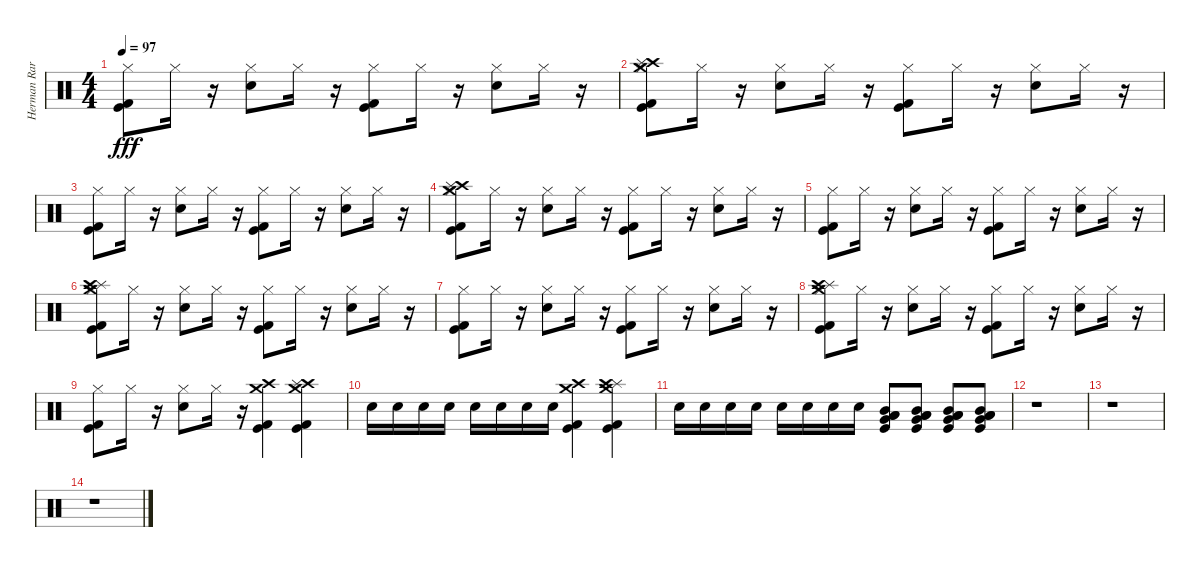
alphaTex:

\track ("Herman Rarebel" "Herman Rar") {instrument percussion}
\staff {score}
\articulation defaults
\ts (4 4)
\tempo 97
\clef neutral
\ks c
("Hi-Hat (closed)" "Kick (hit)" "Kick (hit) 2").8{dy fff} "Hi-Hat (closed)".16 r.16 ("Snare (hit) 2" "Hi-Hat (closed)").8 "Hi-Hat (closed)".16 r.16 ("Kick (hit) 2" "Kick (hit)" "Hi-Hat (closed)").8 "Hi-Hat (closed)".16 r.16 ("Snare (hit) 2" "Hi-Hat (closed)").8 "Hi-Hat (closed)".16 r.16 |
("Hi-Hat (closed)" "Crash high (hit)" "Splash (hit)" "Crash medium (hit)" "Kick (hit)" "Kick (hit) 2").8 "Hi-Hat (closed)".16 r.16 ("Snare (hit) 2" "Hi-Hat (closed)").8 "Hi-Hat (closed)".16 r.16 ("Kick (hit) 2" "Kick (hit)" "Hi-Hat (closed)").8 "Hi-Hat (closed)".16 r.16 ("Snare (hit) 2" "Hi-Hat (closed)").8 "Hi-Hat (closed)".16 r.16 |
("Hi-Hat (closed)" "Kick (hit)" "Kick (hit) 2").8 "Hi-Hat (closed)".16 r.16 ("Snare (hit) 2" "Hi-Hat (closed)").8 "Hi-Hat (closed)".16 r.16 ("Kick (hit) 2" "Kick (hit)" "Hi-Hat (closed)").8 "Hi-Hat (closed)".16 r.16 ("Snare (hit) 2" "Hi-Hat (closed)").8 "Hi-Hat (closed)".16 r.16 |
("Hi-Hat (closed)" "Crash high (hit)" "Splash (hit)" "Crash medium (hit)" "Kick (hit)" "Kick (hit) 2").8 "Hi-Hat (closed)".16 r.16 ("Snare (hit) 2" "Hi-Hat (closed)").8 "Hi-Hat (closed)".16 r.16 ("Kick (hit) 2" "Kick (hit)" "Hi-Hat (closed)").8 "Hi-Hat (closed)".16 r.16 ("Snare (hit) 2" "Hi-Hat (closed)").8 "Hi-Hat (closed)".16 r.16 |
("Hi-Hat (closed)" "Kick (hit)" "Kick (hit) 2").8 "Hi-Hat (closed)".16 r.16 ("Snare (hit) 2" "Hi-Hat (closed)").8 "Hi-Hat (closed)".16 r.16 ("Kick (hit) 2" "Kick (hit)" "Hi-Hat (closed)").8 "Hi-Hat (closed)".16 r.16 ("Snare (hit) 2" "Hi-Hat (closed)").8 "Hi-Hat (closed)".16 r.16 |
("Kick (hit) 2" "Kick (hit)" "Crash medium (hit)" "Splash (hit)" "Crash high (hit)" "Hi-Hat (closed)").8 "Hi-Hat (closed)".16 r.16 ("Snare (hit) 2" "Hi-Hat (closed)").8 "Hi-Hat (closed)".16 r.16 ("Kick (hit) 2" "Kick (hit)" "Hi-Hat (closed)").8 "Hi-Hat (closed)".16 r.16 ("Snare (hit) 2" "Hi-Hat (closed)").8 "Hi-Hat (closed)".16 r.16 |
("Hi-Hat (closed)" "Kick (hit)" "Kick (hit) 2").8 "Hi-Hat (closed)".16 r.16 ("Snare (hit) 2" "Hi-Hat (closed)").8 "Hi-Hat (closed)".16 r.16 ("Kick (hit) 2" "Kick (hit)" "Hi-Hat (closed)").8 "Hi-Hat (closed)".16 r.16 ("Snare (hit) 2" "Hi-Hat (closed)").8 "Hi-Hat (closed)".16 r.16 |
("Hi-Hat (closed)" "Kick (hit)" "Kick (hit) 2" "Crash medium (hit)" "Splash (hit)" "Crash high (hit)").8 "Hi-Hat (closed)".16 r.16 ("Snare (hit) 2" "Hi-Hat (closed)").8 "Hi-Hat (closed)".16 r.16 ("Kick (hit) 2" "Kick (hit)" "Hi-Hat (closed)").8 "Hi-Hat (closed)".16 r.16 ("Snare (hit) 2" "Hi-Hat (closed)").8 "Hi-Hat (closed)".16 r.16 |
("Hi-Hat (closed)" "Kick (hit)" "Kick (hit) 2").8 "Hi-Hat (closed)".16 r.16 ("Hi-Hat (closed)" "Snare (hit) 2").8 "Hi-Hat (closed)".16 r.16 ("Kick (hit) 2" "Kick (hit)" "Crash high (hit)" "Crash medium (hit)").4 ("Kick (hit) 2" "Kick (hit)" "Crash high (hit)" "Crash medium (hit)" "Splash (hit)").4 |
"Snare (hit) 2".16 "Snare (hit) 2".16 "Snare (hit) 2".16 "Snare (hit) 2".16 "Snare (hit) 2".16 "Snare (hit) 2".16 "Snare (hit) 2".16 "Snare (hit) 2".16 ("Kick (hit) 2" "Kick (hit)" "Crash medium (hit)" "Crash high (hit)").4 ("Kick (hit)" "Kick (hit) 2" "Crash medium (hit)" "Splash (hit)" "Crash high (hit)").4 |
"Snare (hit) 2".16 "Snare (hit) 2".16 "Snare (hit) 2".16 "Snare (hit) 2".16 "Snare (hit) 2".16 "Snare (hit) 2".16 "Snare (hit) 2".16 "Snare (hit) 2".16 ("Mid Tom (hit)" "Low Tom (hit)" "Very Low Tom (hit)" "Low Floor Tom (hit)" "Kick (hit)").8 ("Mid Tom (hit)" "Low Tom (hit)" "Very Low Tom (hit)" "Low Floor Tom (hit)" "Kick (hit)").8 ("Mid Tom (hit)" "Low Tom (hit)" "Very Low Tom (hit)" "Low Floor Tom (hit)" "Kick (hit)").8 ("Mid Tom (hit)" "Low Tom (hit)" "Very Low Tom (hit)" "Low Floor Tom (hit)" "Kick (hit)").8 |
r.1 |
r.1 |
r.1
